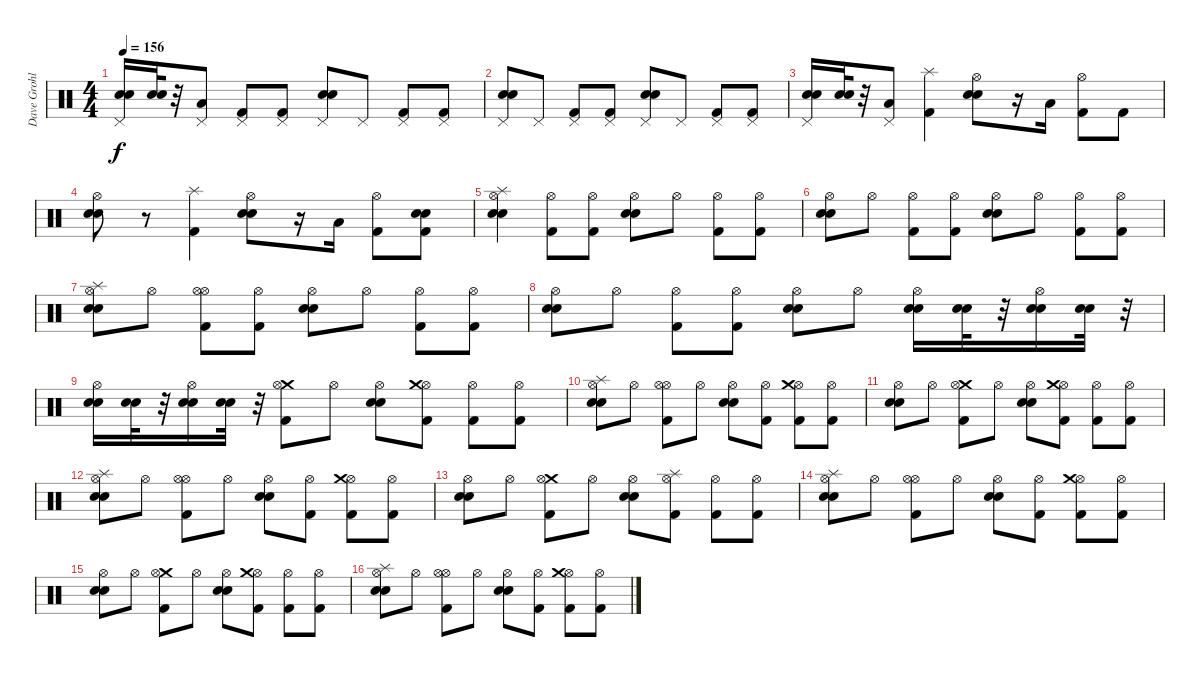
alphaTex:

\track ("Dave Grohl" "Dave Grohl") {instrument percussion}
\staff {score}
\articulation defaults
\ts (4 4)
\tempo 156
\clef neutral
\ks c
("Pedal Hi-Hat (hit)" "Snare (hit) 2" "Electric Snare (hit)").16{dy f} ("Snare (hit) 2" "Electric Snare (hit)").32 r.32 ("Pedal Hi-Hat (hit)" "Low Floor Tom (hit)").8 ("Kick (hit) 2" "Pedal Hi-Hat (hit)").8 ("Kick (hit) 2" "Pedal Hi-Hat (hit)").8 ("Snare (hit) 2" "Electric Snare (hit)" "Pedal Hi-Hat (hit)").8 "Pedal Hi-Hat (hit)".8 ("Kick (hit) 2" "Pedal Hi-Hat (hit)").8 ("Kick (hit) 2" "Pedal Hi-Hat (hit)").8 |
("Snare (hit) 2" "Electric Snare (hit)" "Pedal Hi-Hat (hit)").8 "Pedal Hi-Hat (hit)".8 ("Kick (hit) 2" "Pedal Hi-Hat (hit)").8 ("Kick (hit) 2" "Pedal Hi-Hat (hit)").8 ("Snare (hit) 2" "Electric Snare (hit)" "Pedal Hi-Hat (hit)").8 "Pedal Hi-Hat (hit)".8 ("Kick (hit) 2" "Pedal Hi-Hat (hit)").8 ("Kick (hit) 2" "Pedal Hi-Hat (hit)").8 |
("Pedal Hi-Hat (hit)" "Snare (hit) 2" "Electric Snare (hit)").16 ("Snare (hit) 2" "Electric Snare (hit)").32 r.32 ("Pedal Hi-Hat (hit)" "Low Floor Tom (hit)").8 ("Kick (hit) 2" "Splash (hit)").4 ("Electric Snare (hit)" "Snare (hit) 2" "Hi-Hat (open)").8 r.16 "Low Floor Tom (hit)".16 ("Kick (hit) 2" "Hi-Hat (open)").8 "Kick (hit) 2".8 |
("Snare (hit) 2" "Electric Snare (hit)" "Hi-Hat (open)").8 r.8 ("Kick (hit) 2" "Splash (hit)").4 ("Electric Snare (hit)" "Snare (hit) 2" "Hi-Hat (open)").8 r.16 "Low Floor Tom (hit)".16 ("Hi-Hat (open)" "Kick (hit) 2").8 ("Snare (hit) 2" "Electric Snare (hit)" "Kick (hit) 2").8 |
("Hi-Hat (open)" "Splash (hit)" "Snare (hit) 2" "Electric Snare (hit)").4 ("Kick (hit) 2" "Hi-Hat (open)").8 ("Kick (hit) 2" "Hi-Hat (open)").8 ("Snare (hit) 2" "Electric Snare (hit)" "Hi-Hat (open)").8 "Hi-Hat (open)".8 ("Kick (hit) 2" "Hi-Hat (open)").8 ("Kick (hit) 2" "Hi-Hat (open)").8 |
("Snare (hit) 2" "Electric Snare (hit)" "Hi-Hat (open)").8 "Hi-Hat (open)".8 ("Kick (hit) 2" "Hi-Hat (open)").8 ("Kick (hit) 2" "Hi-Hat (open)").8 ("Snare (hit) 2" "Electric Snare (hit)" "Hi-Hat (open)").8 "Hi-Hat (open)".8 ("Kick (hit) 2" "Hi-Hat (open)").8 ("Kick (hit) 2" "Hi-Hat (open)").8 |
("Hi-Hat (open)" "Snare (hit) 2" "Electric Snare (hit)" "Splash (hit)").8 "Hi-Hat (open)".8 ("Kick (hit) 2" "Hi-Hat (open)" "Hi-Hat (open)").8 ("Kick (hit) 2" "Hi-Hat (open)").8 ("Snare (hit) 2" "Electric Snare (hit)" "Hi-Hat (open)").8 "Hi-Hat (open)".8 ("Kick (hit) 2" "Hi-Hat (open)").8 ("Kick (hit) 2" "Hi-Hat (open)").8 |
("Snare (hit) 2" "Electric Snare (hit)" "Hi-Hat (open)").8 "Hi-Hat (open)".8 ("Kick (hit) 2" "Hi-Hat (open)").8 ("Kick (hit) 2" "Hi-Hat (open)").8 ("Snare (hit) 2" "Electric Snare (hit)" "Hi-Hat (open)").8 "Hi-Hat (open)".8 ("Snare (hit) 2" "Electric Snare (hit)" "Hi-Hat (open)").16 ("Snare (hit) 2" "Electric Snare (hit)").32 r.32 ("Snare (hit) 2" "Electric Snare (hit)" "Hi-Hat (open)").16 ("Snare (hit) 2" "Electric Snare (hit)").32 r.32 |
("Snare (hit) 2" "Electric Snare (hit)" "Hi-Hat (open)").16 ("Snare (hit) 2" "Electric Snare (hit)").32 r.32 ("Snare (hit) 2" "Electric Snare (hit)" "Hi-Hat (open)").16 ("Snare (hit) 2" "Electric Snare (hit)").32 r.32 ("Crash medium (hit)" "Kick (hit) 2" "Hi-Hat (open)").8 "Hi-Hat (open)".8 ("Electric Snare (hit)" "Snare (hit) 2" "Hi-Hat (open)").8 ("Kick (hit) 2" "Hi-Hat (open)" "Crash medium (hit)").8 ("Kick (hit) 2" "Hi-Hat (open)").8 ("Kick (hit) 2" "Hi-Hat (open)").8 |
("Splash (hit)" "Snare (hit) 2" "Electric Snare (hit)" "Hi-Hat (open)").8 "Hi-Hat (open)".8 ("Hi-Hat (open)" "Kick (hit) 2" "Hi-Hat (open)").8 "Hi-Hat (open)".8 ("Electric Snare (hit)" "Snare (hit) 2" "Hi-Hat (open)").8 ("Kick (hit) 2" "Hi-Hat (open)").8 ("Kick (hit) 2" "Hi-Hat (open)" "Crash medium (hit)").8 ("Kick (hit) 2" "Hi-Hat (open)").8 |
("Snare (hit) 2" "Electric Snare (hit)" "Hi-Hat (open)").8 "Hi-Hat (open)".8 ("Crash medium (hit)" "Kick (hit) 2" "Hi-Hat (open)").8 "Hi-Hat (open)".8 ("Electric Snare (hit)" "Snare (hit) 2" "Hi-Hat (open)").8 ("Kick (hit) 2" "Hi-Hat (open)" "Crash medium (hit)").8 ("Kick (hit) 2" "Hi-Hat (open)").8 ("Kick (hit) 2" "Hi-Hat (open)").8 |
("Splash (hit)" "Snare (hit) 2" "Electric Snare (hit)" "Hi-Hat (open)").8 "Hi-Hat (open)".8 ("Hi-Hat (open)" "Kick (hit) 2" "Hi-Hat (open)").8 "Hi-Hat (open)".8 ("Electric Snare (hit)" "Snare (hit) 2" "Hi-Hat (open)").8 ("Kick (hit) 2" "Hi-Hat (open)").8 ("Kick (hit) 2" "Hi-Hat (open)" "Crash medium (hit)").8 ("Kick (hit) 2" "Hi-Hat (open)").8 |
("Snare (hit) 2" "Electric Snare (hit)" "Hi-Hat (open)").8 "Hi-Hat (open)".8 ("Crash medium (hit)" "Kick (hit) 2" "Hi-Hat (open)").8 "Hi-Hat (open)".8 ("Electric Snare (hit)" "Snare (hit) 2" "Hi-Hat (open)").8 ("Kick (hit) 2" "Hi-Hat (open)" "Splash (hit)").8 ("Kick (hit) 2" "Hi-Hat (open)").8 ("Kick (hit) 2" "Hi-Hat (open)").8 |
("Splash (hit)" "Snare (hit) 2" "Electric Snare (hit)" "Hi-Hat (open)").8 "Hi-Hat (open)".8 ("Hi-Hat (open)" "Kick (hit) 2" "Hi-Hat (open)").8 "Hi-Hat (open)".8 ("Electric Snare (hit)" "Snare (hit) 2" "Hi-Hat (open)").8 ("Kick (hit) 2" "Hi-Hat (open)").8 ("Kick (hit) 2" "Hi-Hat (open)" "Crash medium (hit)").8 ("Kick (hit) 2" "Hi-Hat (open)").8 |
("Snare (hit) 2" "Electric Snare (hit)" "Hi-Hat (open)").8 "Hi-Hat (open)".8 ("Crash medium (hit)" "Kick (hit) 2" "Hi-Hat (open)").8 "Hi-Hat (open)".8 ("Electric Snare (hit)" "Snare (hit) 2" "Hi-Hat (open)").8 ("Kick (hit) 2" "Hi-Hat (open)" "Crash medium (hit)").8 ("Kick (hit) 2" "Hi-Hat (open)").8 ("Kick (hit) 2" "Hi-Hat (open)").8 |
("Splash (hit)" "Snare (hit) 2" "Electric Snare (hit)" "Hi-Hat (open)").8 "Hi-Hat (open)".8 ("Hi-Hat (open)" "Kick (hit) 2" "Hi-Hat (open)").8 "Hi-Hat (open)".8 ("Electric Snare (hit)" "Snare (hit) 2" "Hi-Hat (open)").8 ("Kick (hit) 2" "Hi-Hat (open)").8 ("Kick (hit) 2" "Hi-Hat (open)" "Crash medium (hit)").8 ("Kick (hit) 2" "Hi-Hat (open)").8
